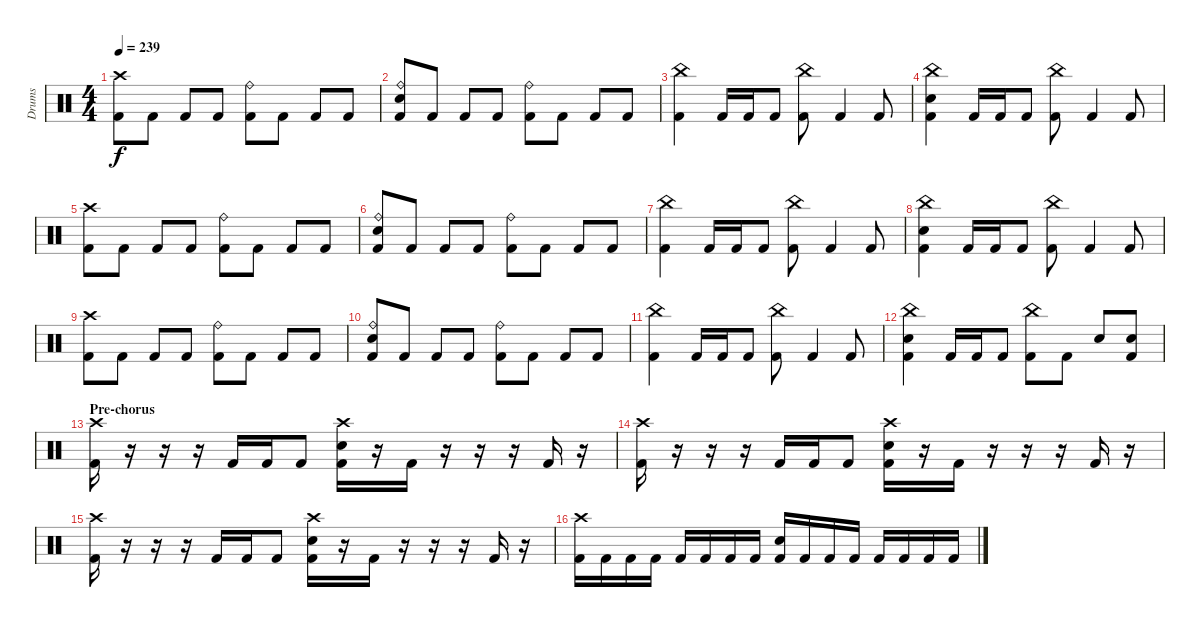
\track ("Drums" "Drums") {instrument percussion}
\staff {score}
\articulation defaults
\ts (4 4)
\tempo 239
\clef neutral
\ks c
("Crash high (hit)" "Kick (hit) 2").8{dy f} "Kick (hit) 2".8 "Kick (hit) 2".8 "Kick (hit) 2".8 ("Ride (bell)" "Kick (hit) 2").8 "Kick (hit) 2".8 "Kick (hit) 2".8 "Kick (hit) 2".8 |
("Ride (bell)" "Electric Snare (hit)" "Kick (hit) 2").8 "Kick (hit) 2".8 "Kick (hit) 2".8 "Kick (hit) 2".8 ("Ride (bell)" "Kick (hit) 2").8 "Kick (hit) 2".8 "Kick (hit) 2".8 "Kick (hit) 2".8 |
("China (hit)" "Kick (hit) 2").4 "Kick (hit) 2".16 "Kick (hit) 2".16 "Kick (hit) 2".8 ("China (hit)" "Kick (hit) 2").8 "Kick (hit) 2".4 "Kick (hit) 2".8 |
("China (hit)" "Electric Snare (hit)" "Kick (hit) 2").4 "Kick (hit) 2".16 "Kick (hit) 2".16 "Kick (hit) 2".8 ("China (hit)" "Kick (hit) 2").8 "Kick (hit) 2".4 "Kick (hit) 2".8 |
("Crash high (hit)" "Kick (hit) 2").8 "Kick (hit) 2".8 "Kick (hit) 2".8 "Kick (hit) 2".8 ("Ride (bell)" "Kick (hit) 2").8 "Kick (hit) 2".8 "Kick (hit) 2".8 "Kick (hit) 2".8 |
("Ride (bell)" "Electric Snare (hit)" "Kick (hit) 2").8 "Kick (hit) 2".8 "Kick (hit) 2".8 "Kick (hit) 2".8 ("Ride (bell)" "Kick (hit) 2").8 "Kick (hit) 2".8 "Kick (hit) 2".8 "Kick (hit) 2".8 |
("China (hit)" "Kick (hit) 2").4 "Kick (hit) 2".16 "Kick (hit) 2".16 "Kick (hit) 2".8 ("China (hit)" "Kick (hit) 2").8 "Kick (hit) 2".4 "Kick (hit) 2".8 |
("China (hit)" "Electric Snare (hit)" "Kick (hit) 2").4 "Kick (hit) 2".16 "Kick (hit) 2".16 "Kick (hit) 2".8 ("China (hit)" "Kick (hit) 2").8 "Kick (hit) 2".4 "Kick (hit) 2".8 |
("Crash high (hit)" "Kick (hit) 2").8 "Kick (hit) 2".8 "Kick (hit) 2".8 "Kick (hit) 2".8 ("Ride (bell)" "Kick (hit) 2").8 "Kick (hit) 2".8 "Kick (hit) 2".8 "Kick (hit) 2".8 |
("Ride (bell)" "Electric Snare (hit)" "Kick (hit) 2").8 "Kick (hit) 2".8 "Kick (hit) 2".8 "Kick (hit) 2".8 ("Ride (bell)" "Kick (hit) 2").8 "Kick (hit) 2".8 "Kick (hit) 2".8 "Kick (hit) 2".8 |
("China (hit)" "Kick (hit) 2").4 "Kick (hit) 2".16 "Kick (hit) 2".16 "Kick (hit) 2".8 ("China (hit)" "Kick (hit) 2").8 "Kick (hit) 2".4 "Kick (hit) 2".8 |
("China (hit)" "Electric Snare (hit)" "Kick (hit) 2").4 "Kick (hit) 2".16 "Kick (hit) 2".16 "Kick (hit) 2".8 ("China (hit)" "Kick (hit) 2").8 "Kick (hit) 2".8 "Electric Snare (hit)".8 ("Electric Snare (hit)" "Kick (hit) 2").8 |
\section ("" "Pre-chorus")
("Crash high (hit)" "Kick (hit) 2").16 r.16 r.16 r.16 "Kick (hit) 2".16 "Kick (hit) 2".16 "Kick (hit) 2".8 ("Crash high (hit)" "Electric Snare (hit)" "Kick (hit) 2").16 r.16 "Kick (hit) 2".16 r.16 r.16 r.16 "Kick (hit) 2".16 r.16 |
("Crash high (hit)" "Kick (hit) 2").16 r.16 r.16 r.16 "Kick (hit) 2".16 "Kick (hit) 2".16 "Kick (hit) 2".8 ("Crash high (hit)" "Electric Snare (hit)" "Kick (hit) 2").16 r.16 "Kick (hit) 2".16 r.16 r.16 r.16 "Kick (hit) 2".16 r.16 |
("Crash high (hit)" "Kick (hit) 2").16 r.16 r.16 r.16 "Kick (hit) 2".16 "Kick (hit) 2".16 "Kick (hit) 2".8 ("Crash high (hit)" "Electric Snare (hit)" "Kick (hit) 2").16 r.16 "Kick (hit) 2".16 r.16 r.16 r.16 "Kick (hit) 2".16 r.16 |
("Crash high (hit)" "Kick (hit) 2").16 "Kick (hit) 2".16 "Kick (hit) 2".16 "Kick (hit) 2".16 "Kick (hit) 2".16 "Kick (hit) 2".16 "Kick (hit) 2".16 "Kick (hit) 2".16 ("Electric Snare (hit)" "Kick (hit) 2").16 "Kick (hit) 2".16 "Kick (hit) 2".16 "Kick (hit) 2".16 "Kick (hit) 2".16 "Kick (hit) 2".16 "Kick (hit) 2".16 "Kick (hit) 2".16
